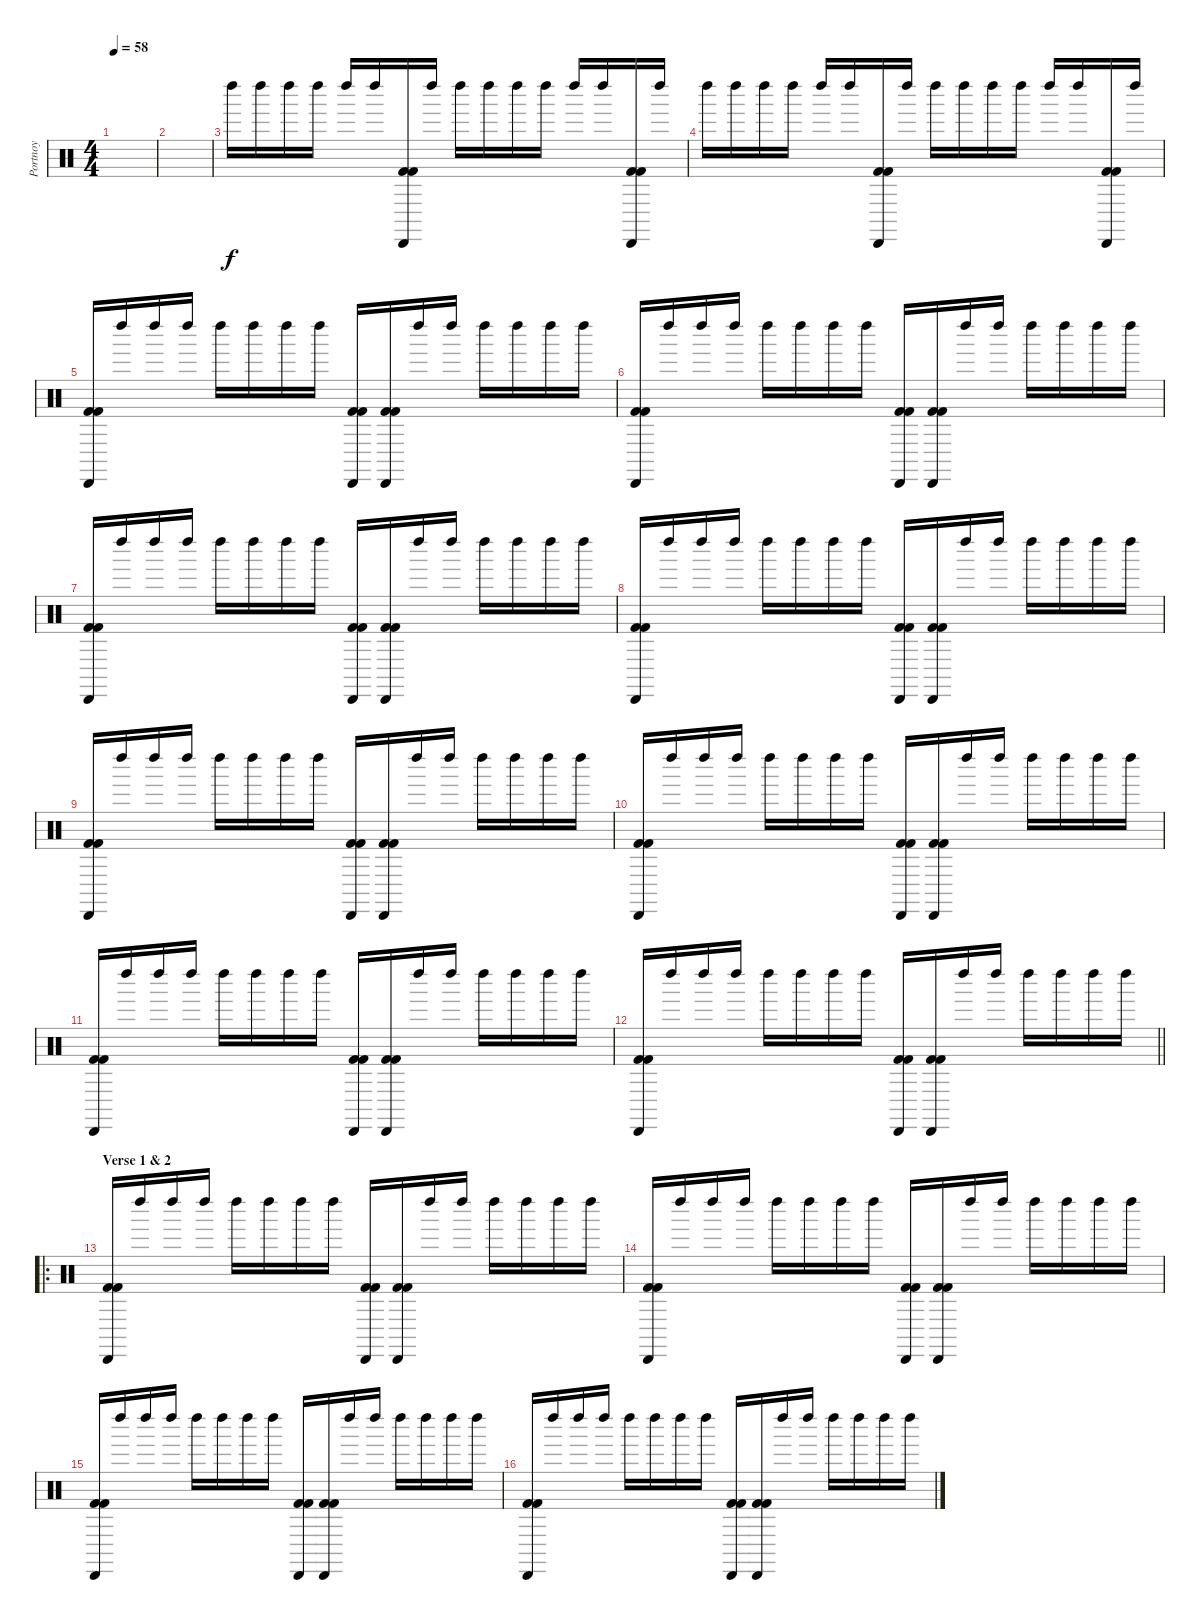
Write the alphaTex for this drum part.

\track ("Portnoy" "Portnoy") {instrument percussion}
\staff {score}
\articulation defaults
\ts (4 4)
\tempo 58
\clef neutral
\ks c
|
|
"Left Maraca (hit)".16 "Left Maraca (hit)".16 "Left Maraca (hit)".16 "Left Maraca (hit)".16 "Left Maraca (hit)".16 "Left Maraca (hit)".16 ("Cabasa (hit)" "Kick (hit) 2" "Kick (hit) 2").16 "Left Maraca (hit)".16 "Left Maraca (hit)".16 "Left Maraca (hit)".16 "Left Maraca (hit)".16 "Left Maraca (hit)".16 "Left Maraca (hit)".16 "Left Maraca (hit)".16 ("Cabasa (hit)" "Kick (hit) 2" "Kick (hit) 2").16 "Left Maraca (hit)".16 |
"Left Maraca (hit)".16 "Left Maraca (hit)".16 "Left Maraca (hit)".16 "Left Maraca (hit)".16 "Left Maraca (hit)".16 "Left Maraca (hit)".16 ("Cabasa (hit)" "Kick (hit) 2" "Kick (hit) 2").16 "Left Maraca (hit)".16 "Left Maraca (hit)".16 "Left Maraca (hit)".16 "Left Maraca (hit)".16 "Left Maraca (hit)".16 "Left Maraca (hit)".16 "Left Maraca (hit)".16 ("Cabasa (hit)" "Kick (hit) 2" "Kick (hit) 2").16 "Left Maraca (hit)".16 |
("Cabasa (hit)" "Kick (hit) 2" "Kick (hit) 2").16 "Left Maraca (hit)".16 "Left Maraca (hit)".16 "Left Maraca (hit)".16 "Left Maraca (hit)".16 "Left Maraca (hit)".16 "Left Maraca (hit)".16 "Left Maraca (hit)".16 ("Cabasa (hit)" "Kick (hit) 2" "Kick (hit) 2").16 ("Cabasa (hit)" "Kick (hit) 2" "Kick (hit) 2").16 "Left Maraca (hit)".16 "Left Maraca (hit)".16 "Left Maraca (hit)".16 "Left Maraca (hit)".16 "Left Maraca (hit)".16 "Left Maraca (hit)".16 |
("Cabasa (hit)" "Kick (hit) 2" "Kick (hit) 2").16 "Left Maraca (hit)".16 "Left Maraca (hit)".16 "Left Maraca (hit)".16 "Left Maraca (hit)".16 "Left Maraca (hit)".16 "Left Maraca (hit)".16 "Left Maraca (hit)".16 ("Cabasa (hit)" "Kick (hit) 2" "Kick (hit) 2").16 ("Cabasa (hit)" "Kick (hit) 2" "Kick (hit) 2").16 "Left Maraca (hit)".16 "Left Maraca (hit)".16 "Left Maraca (hit)".16 "Left Maraca (hit)".16 "Left Maraca (hit)".16 "Left Maraca (hit)".16 |
("Cabasa (hit)" "Kick (hit) 2" "Kick (hit) 2").16 "Left Maraca (hit)".16 "Left Maraca (hit)".16 "Left Maraca (hit)".16 "Left Maraca (hit)".16 "Left Maraca (hit)".16 "Left Maraca (hit)".16 "Left Maraca (hit)".16 ("Cabasa (hit)" "Kick (hit) 2" "Kick (hit) 2").16 ("Cabasa (hit)" "Kick (hit) 2" "Kick (hit) 2").16 "Left Maraca (hit)".16 "Left Maraca (hit)".16 "Left Maraca (hit)".16 "Left Maraca (hit)".16 "Left Maraca (hit)".16 "Left Maraca (hit)".16 |
("Cabasa (hit)" "Kick (hit) 2" "Kick (hit) 2").16 "Left Maraca (hit)".16 "Left Maraca (hit)".16 "Left Maraca (hit)".16 "Left Maraca (hit)".16 "Left Maraca (hit)".16 "Left Maraca (hit)".16 "Left Maraca (hit)".16 ("Cabasa (hit)" "Kick (hit) 2" "Kick (hit) 2").16 ("Cabasa (hit)" "Kick (hit) 2" "Kick (hit) 2").16 "Left Maraca (hit)".16 "Left Maraca (hit)".16 "Left Maraca (hit)".16 "Left Maraca (hit)".16 "Left Maraca (hit)".16 "Left Maraca (hit)".16 |
("Cabasa (hit)" "Kick (hit) 2" "Kick (hit) 2").16 "Left Maraca (hit)".16 "Left Maraca (hit)".16 "Left Maraca (hit)".16 "Left Maraca (hit)".16 "Left Maraca (hit)".16 "Left Maraca (hit)".16 "Left Maraca (hit)".16 ("Cabasa (hit)" "Kick (hit) 2" "Kick (hit) 2").16 ("Cabasa (hit)" "Kick (hit) 2" "Kick (hit) 2").16 "Left Maraca (hit)".16 "Left Maraca (hit)".16 "Left Maraca (hit)".16 "Left Maraca (hit)".16 "Left Maraca (hit)".16 "Left Maraca (hit)".16 |
("Cabasa (hit)" "Kick (hit) 2" "Kick (hit) 2").16 "Left Maraca (hit)".16 "Left Maraca (hit)".16 "Left Maraca (hit)".16 "Left Maraca (hit)".16 "Left Maraca (hit)".16 "Left Maraca (hit)".16 "Left Maraca (hit)".16 ("Cabasa (hit)" "Kick (hit) 2" "Kick (hit) 2").16 ("Cabasa (hit)" "Kick (hit) 2" "Kick (hit) 2").16 "Left Maraca (hit)".16 "Left Maraca (hit)".16 "Left Maraca (hit)".16 "Left Maraca (hit)".16 "Left Maraca (hit)".16 "Left Maraca (hit)".16 |
("Cabasa (hit)" "Kick (hit) 2" "Kick (hit) 2").16 "Left Maraca (hit)".16 "Left Maraca (hit)".16 "Left Maraca (hit)".16 "Left Maraca (hit)".16 "Left Maraca (hit)".16 "Left Maraca (hit)".16 "Left Maraca (hit)".16 ("Cabasa (hit)" "Kick (hit) 2" "Kick (hit) 2").16 ("Cabasa (hit)" "Kick (hit) 2" "Kick (hit) 2").16 "Left Maraca (hit)".16 "Left Maraca (hit)".16 "Left Maraca (hit)".16 "Left Maraca (hit)".16 "Left Maraca (hit)".16 "Left Maraca (hit)".16 |
\barLineRight lightlight
("Cabasa (hit)" "Kick (hit) 2" "Kick (hit) 2").16 "Left Maraca (hit)".16 "Left Maraca (hit)".16 "Left Maraca (hit)".16 "Left Maraca (hit)".16 "Left Maraca (hit)".16 "Left Maraca (hit)".16 "Left Maraca (hit)".16 ("Cabasa (hit)" "Kick (hit) 2" "Kick (hit) 2").16 ("Cabasa (hit)" "Kick (hit) 2" "Kick (hit) 2").16 "Left Maraca (hit)".16 "Left Maraca (hit)".16 "Left Maraca (hit)".16 "Left Maraca (hit)".16 "Left Maraca (hit)".16 "Left Maraca (hit)".16 |
\ro
\section ("" "Verse 1 & 2")
("Cabasa (hit)" "Kick (hit) 2" "Kick (hit) 2").16 "Left Maraca (hit)".16 "Left Maraca (hit)".16 "Left Maraca (hit)".16 "Left Maraca (hit)".16 "Left Maraca (hit)".16 "Left Maraca (hit)".16 "Left Maraca (hit)".16 ("Cabasa (hit)" "Kick (hit) 2" "Kick (hit) 2").16 ("Cabasa (hit)" "Kick (hit) 2" "Kick (hit) 2").16 "Left Maraca (hit)".16 "Left Maraca (hit)".16 "Left Maraca (hit)".16 "Left Maraca (hit)".16 "Left Maraca (hit)".16 "Left Maraca (hit)".16 |
("Cabasa (hit)" "Kick (hit) 2" "Kick (hit) 2").16 "Left Maraca (hit)".16 "Left Maraca (hit)".16 "Left Maraca (hit)".16 "Left Maraca (hit)".16 "Left Maraca (hit)".16 "Left Maraca (hit)".16 "Left Maraca (hit)".16 ("Cabasa (hit)" "Kick (hit) 2" "Kick (hit) 2").16 ("Cabasa (hit)" "Kick (hit) 2" "Kick (hit) 2").16 "Left Maraca (hit)".16 "Left Maraca (hit)".16 "Left Maraca (hit)".16 "Left Maraca (hit)".16 "Left Maraca (hit)".16 "Left Maraca (hit)".16 |
("Cabasa (hit)" "Kick (hit) 2" "Kick (hit) 2").16 "Left Maraca (hit)".16 "Left Maraca (hit)".16 "Left Maraca (hit)".16 "Left Maraca (hit)".16 "Left Maraca (hit)".16 "Left Maraca (hit)".16 "Left Maraca (hit)".16 ("Cabasa (hit)" "Kick (hit) 2" "Kick (hit) 2").16 ("Cabasa (hit)" "Kick (hit) 2" "Kick (hit) 2").16 "Left Maraca (hit)".16 "Left Maraca (hit)".16 "Left Maraca (hit)".16 "Left Maraca (hit)".16 "Left Maraca (hit)".16 "Left Maraca (hit)".16 |
("Cabasa (hit)" "Kick (hit) 2" "Kick (hit) 2").16 "Left Maraca (hit)".16 "Left Maraca (hit)".16 "Left Maraca (hit)".16 "Left Maraca (hit)".16 "Left Maraca (hit)".16 "Left Maraca (hit)".16 "Left Maraca (hit)".16 ("Cabasa (hit)" "Kick (hit) 2" "Kick (hit) 2").16 ("Cabasa (hit)" "Kick (hit) 2" "Kick (hit) 2").16 "Left Maraca (hit)".16 "Left Maraca (hit)".16 "Left Maraca (hit)".16 "Left Maraca (hit)".16 "Left Maraca (hit)".16 "Left Maraca (hit)".16
